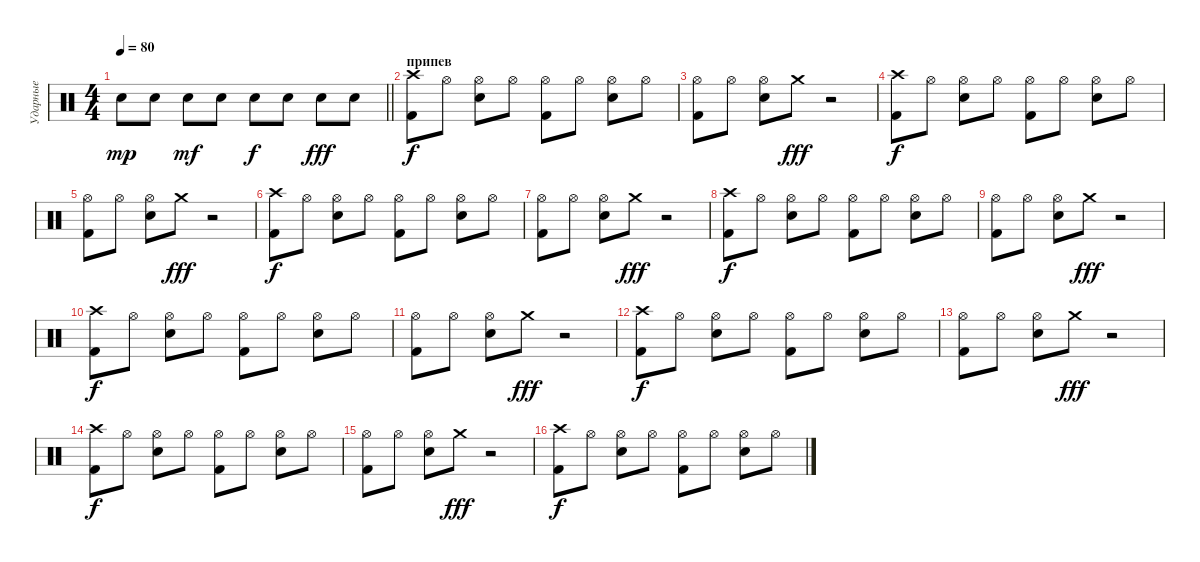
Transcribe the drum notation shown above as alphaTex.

\track ("Ударные" "Ударные") {instrument percussion}
\staff {score}
\articulation defaults
\ts (4 4)
\tempo 80
\clef neutral
\barLineRight lightlight
\ks c "Snare (hit) 2".8{dy mp} "Snare (hit) 2".8 "Snare (hit) 2".8{dy mf} "Snare (hit) 2".8 "Snare (hit) 2".8{dy f} "Snare (hit) 2".8 "Snare (hit) 2".8{dy fff} "Snare (hit) 2".8
|
\section ("" "припев")
("Crash high (hit)" "Kick (hit) 2").8{dy f} "Hi-Hat (open)".8 ("Hi-Hat (open)" "Electric Snare (hit)").8 "Hi-Hat (open)".8 ("Kick (hit) 2" "Hi-Hat (open)").8 "Hi-Hat (open)".8 ("Hi-Hat (open)" "Electric Snare (hit)").8 "Hi-Hat (open)".8 |
("Hi-Hat (open)" "Kick (hit) 2").8 "Hi-Hat (open)".8 ("Hi-Hat (open)" "Electric Snare (hit)").8 "Crash medium (hit)".8{dy fff} r.2 |
("Crash high (hit)" "Kick (hit) 2").8{dy f} "Hi-Hat (open)".8 ("Hi-Hat (open)" "Electric Snare (hit)").8 "Hi-Hat (open)".8 ("Kick (hit) 2" "Hi-Hat (open)").8 "Hi-Hat (open)".8 ("Hi-Hat (open)" "Electric Snare (hit)").8 "Hi-Hat (open)".8 |
("Hi-Hat (open)" "Kick (hit) 2").8 "Hi-Hat (open)".8 ("Hi-Hat (open)" "Electric Snare (hit)").8 "Crash medium (hit)".8{dy fff} r.2 |
("Crash high (hit)" "Kick (hit) 2").8{dy f} "Hi-Hat (open)".8 ("Hi-Hat (open)" "Electric Snare (hit)").8 "Hi-Hat (open)".8 ("Kick (hit) 2" "Hi-Hat (open)").8 "Hi-Hat (open)".8 ("Hi-Hat (open)" "Electric Snare (hit)").8 "Hi-Hat (open)".8 |
("Hi-Hat (open)" "Kick (hit) 2").8 "Hi-Hat (open)".8 ("Hi-Hat (open)" "Electric Snare (hit)").8 "Crash medium (hit)".8{dy fff} r.2 |
("Crash high (hit)" "Kick (hit) 2").8{dy f} "Hi-Hat (open)".8 ("Hi-Hat (open)" "Electric Snare (hit)").8 "Hi-Hat (open)".8 ("Kick (hit) 2" "Hi-Hat (open)").8 "Hi-Hat (open)".8 ("Hi-Hat (open)" "Electric Snare (hit)").8 "Hi-Hat (open)".8 |
("Hi-Hat (open)" "Kick (hit) 2").8 "Hi-Hat (open)".8 ("Hi-Hat (open)" "Electric Snare (hit)").8 "Crash medium (hit)".8{dy fff} r.2 |
("Crash high (hit)" "Kick (hit) 2").8{dy f} "Hi-Hat (open)".8 ("Hi-Hat (open)" "Electric Snare (hit)").8 "Hi-Hat (open)".8 ("Kick (hit) 2" "Hi-Hat (open)").8 "Hi-Hat (open)".8 ("Hi-Hat (open)" "Electric Snare (hit)").8 "Hi-Hat (open)".8 |
("Hi-Hat (open)" "Kick (hit) 2").8 "Hi-Hat (open)".8 ("Hi-Hat (open)" "Electric Snare (hit)").8 "Crash medium (hit)".8{dy fff} r.2 |
("Crash high (hit)" "Kick (hit) 2").8{dy f} "Hi-Hat (open)".8 ("Hi-Hat (open)" "Electric Snare (hit)").8 "Hi-Hat (open)".8 ("Kick (hit) 2" "Hi-Hat (open)").8 "Hi-Hat (open)".8 ("Hi-Hat (open)" "Electric Snare (hit)").8 "Hi-Hat (open)".8 |
("Hi-Hat (open)" "Kick (hit) 2").8 "Hi-Hat (open)".8 ("Hi-Hat (open)" "Electric Snare (hit)").8 "Crash medium (hit)".8{dy fff} r.2 |
("Crash high (hit)" "Kick (hit) 2").8{dy f} "Hi-Hat (open)".8 ("Hi-Hat (open)" "Electric Snare (hit)").8 "Hi-Hat (open)".8 ("Kick (hit) 2" "Hi-Hat (open)").8 "Hi-Hat (open)".8 ("Hi-Hat (open)" "Electric Snare (hit)").8 "Hi-Hat (open)".8 |
("Hi-Hat (open)" "Kick (hit) 2").8 "Hi-Hat (open)".8 ("Hi-Hat (open)" "Electric Snare (hit)").8 "Crash medium (hit)".8{dy fff} r.2 |
("Crash high (hit)" "Kick (hit) 2").8{dy f} "Hi-Hat (open)".8 ("Hi-Hat (open)" "Electric Snare (hit)").8 "Hi-Hat (open)".8 ("Kick (hit) 2" "Hi-Hat (open)").8 "Hi-Hat (open)".8 ("Hi-Hat (open)" "Electric Snare (hit)").8 "Hi-Hat (open)".8
